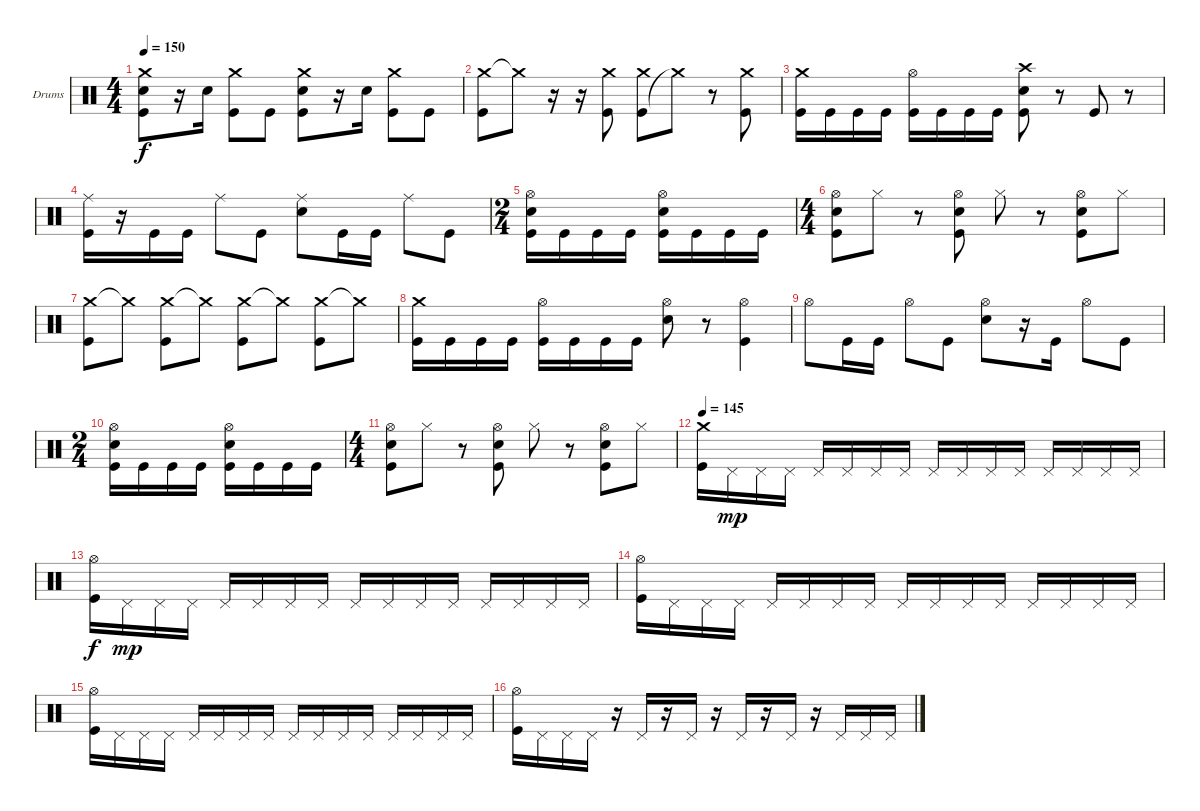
\defaultSystemsLayout 4
\bracketExtendMode groupsimilarinstruments
\firstSystemTrackNameOrientation horizontal
\otherSystemsTrackNameOrientation horizontal
\track ("Moe Carlson" "Drums") {instrument percussion}
\staff {score}
\articulation defaults
\ts (4 4)
\tempo 150
\clef neutral
\ks c
("Crash medium (hit)" "Kick (hit)" "Snare (hit) 2").8{dy f} r.16 "Snare (hit) 2".16 ("Crash medium (hit)" "Kick (hit)").8 "Kick (hit)".8 ("Kick (hit)" "Snare (hit) 2" "Crash medium (hit)").8 r.16 "Snare (hit) 2".16 ("Crash medium (hit)" "Kick (hit)").8 "Kick (hit)".8 |
("Crash medium (hit)" "Kick (hit)").8 "Crash medium (hit)"{t}.8 r.16 r.16 ("Crash medium (hit)" "Kick (hit)").8 ("Kick (hit)" "Crash medium (hit)").8 "Crash medium (hit)"{t}.8 r.8 ("Crash medium (hit)" "Kick (hit)").8 |
("Kick (hit)" "Crash medium (hit)").16 "Kick (hit)".16 "Kick (hit)".16 "Kick (hit)".16 ("Kick (hit)" "Hi-Hat (open)").16 "Kick (hit)".16 "Kick (hit)".16 "Kick (hit)".16 ("Kick (hit)" "Snare (hit) 2" "Crash high (hit)").8 r.8 "Kick (hit)".8 r.8 |
("Ride (middle)" "Kick (hit)").16 r.16 "Kick (hit)".16 "Kick (hit)".16 "Ride (middle)".8 "Kick (hit)".8 ("Snare (hit) 2" "Ride (middle)").8 "Kick (hit)".16 "Kick (hit)".16 "Ride (middle)".8 "Kick (hit)".8 |
\ts (2 4)
("Kick (hit)" "Snare (hit) 2" "Hi-Hat (open)").16 "Kick (hit)".16 "Kick (hit)".16 "Kick (hit)".16 ("Kick (hit)" "Hi-Hat (open)" "Snare (hit) 2").16 "Kick (hit)".16 "Kick (hit)".16 "Kick (hit)".16 |
\ts (4 4)
("Kick (hit)" "Snare (hit) 2" "Hi-Hat (open)").8 "Hi-Hat (closed)".8 r.8 ("Kick (hit)" "Snare (hit) 2" "Hi-Hat (open)").8 "Hi-Hat (closed)".8 r.8 ("Kick (hit)" "Snare (hit) 2" "Hi-Hat (open)").8 "Hi-Hat (closed)".8 |
("Crash medium (hit)" "Kick (hit)").8 "Crash medium (hit)"{t}.8 ("Crash medium (hit)" "Kick (hit)").8 "Crash medium (hit)"{t}.8 ("Crash medium (hit)" "Kick (hit)").8 "Crash medium (hit)"{t}.8 ("Crash medium (hit)" "Kick (hit)").8 "Crash medium (hit)"{t}.8 |
("Kick (hit)" "Crash medium (hit)").16 "Kick (hit)".16 "Kick (hit)".16 "Kick (hit)".16 ("Kick (hit)" "Hi-Hat (open)").16 "Kick (hit)".16 "Kick (hit)".16 "Kick (hit)".16 ("Snare (hit) 2" "Hi-Hat (open)").8 r.8 ("Hi-Hat (open)" "Kick (hit)").4 |
"Hi-Hat (open)".8 "Kick (hit)".16 "Kick (hit)".16 "Hi-Hat (open)".8 "Kick (hit)".8 ("Snare (hit) 2" "Hi-Hat (open)").8 r.16 "Kick (hit)".16 "Hi-Hat (open)".8 "Kick (hit)".8 |
\ts (2 4)
("Kick (hit)" "Snare (hit) 2" "Hi-Hat (open)").16 "Kick (hit)".16 "Kick (hit)".16 "Kick (hit)".16 ("Kick (hit)" "Hi-Hat (open)" "Snare (hit) 2").16 "Kick (hit)".16 "Kick (hit)".16 "Kick (hit)".16 |
\ts (4 4)
("Kick (hit)" "Snare (hit) 2" "Hi-Hat (open)").8 "Hi-Hat (closed)".8 r.8 ("Kick (hit)" "Snare (hit) 2" "Hi-Hat (open)").8 "Hi-Hat (closed)".8 r.8 ("Kick (hit)" "Snare (hit) 2" "Hi-Hat (open)").8 "Hi-Hat (closed)".8 |
\tempo 145
("Kick (hit)" "Crash medium (hit)").16 "Pedal Hi-Hat (hit)".16{dy mp} "Pedal Hi-Hat (hit)".16 "Pedal Hi-Hat (hit)".16 "Pedal Hi-Hat (hit)".16 "Pedal Hi-Hat (hit)".16 "Pedal Hi-Hat (hit)".16 "Pedal Hi-Hat (hit)".16 "Pedal Hi-Hat (hit)".16 "Pedal Hi-Hat (hit)".16 "Pedal Hi-Hat (hit)".16 "Pedal Hi-Hat (hit)".16 "Pedal Hi-Hat (hit)".16 "Pedal Hi-Hat (hit)".16 "Pedal Hi-Hat (hit)".16 "Pedal Hi-Hat (hit)".16 |
("Kick (hit)" "Hi-Hat (open)").16{dy f} "Pedal Hi-Hat (hit)".16{dy mp} "Pedal Hi-Hat (hit)".16 "Pedal Hi-Hat (hit)".16 "Pedal Hi-Hat (hit)".16 "Pedal Hi-Hat (hit)".16 "Pedal Hi-Hat (hit)".16 "Pedal Hi-Hat (hit)".16 "Pedal Hi-Hat (hit)".16 "Pedal Hi-Hat (hit)".16 "Pedal Hi-Hat (hit)".16 "Pedal Hi-Hat (hit)".16 "Pedal Hi-Hat (hit)".16 "Pedal Hi-Hat (hit)".16 "Pedal Hi-Hat (hit)".16 "Pedal Hi-Hat (hit)".16 |
("Kick (hit)" "Hi-Hat (open)").16 "Pedal Hi-Hat (hit)".16 "Pedal Hi-Hat (hit)".16 "Pedal Hi-Hat (hit)".16 "Pedal Hi-Hat (hit)".16 "Pedal Hi-Hat (hit)".16 "Pedal Hi-Hat (hit)".16 "Pedal Hi-Hat (hit)".16 "Pedal Hi-Hat (hit)".16 "Pedal Hi-Hat (hit)".16 "Pedal Hi-Hat (hit)".16 "Pedal Hi-Hat (hit)".16 "Pedal Hi-Hat (hit)".16 "Pedal Hi-Hat (hit)".16 "Pedal Hi-Hat (hit)".16 "Pedal Hi-Hat (hit)".16 |
("Kick (hit)" "Hi-Hat (open)").16 "Pedal Hi-Hat (hit)".16 "Pedal Hi-Hat (hit)".16 "Pedal Hi-Hat (hit)".16 "Pedal Hi-Hat (hit)".16 "Pedal Hi-Hat (hit)".16 "Pedal Hi-Hat (hit)".16 "Pedal Hi-Hat (hit)".16 "Pedal Hi-Hat (hit)".16 "Pedal Hi-Hat (hit)".16 "Pedal Hi-Hat (hit)".16 "Pedal Hi-Hat (hit)".16 "Pedal Hi-Hat (hit)".16 "Pedal Hi-Hat (hit)".16 "Pedal Hi-Hat (hit)".16 "Pedal Hi-Hat (hit)".16 |
("Kick (hit)" "Hi-Hat (open)").16 "Pedal Hi-Hat (hit)".16 "Pedal Hi-Hat (hit)".16 "Pedal Hi-Hat (hit)".16 r.16 "Pedal Hi-Hat (hit)".16 r.16 "Pedal Hi-Hat (hit)".16 r.16 "Pedal Hi-Hat (hit)".16 r.16 "Pedal Hi-Hat (hit)".16 r.16 "Pedal Hi-Hat (hit)".16 "Pedal Hi-Hat (hit)".16 "Pedal Hi-Hat (hit)".16
